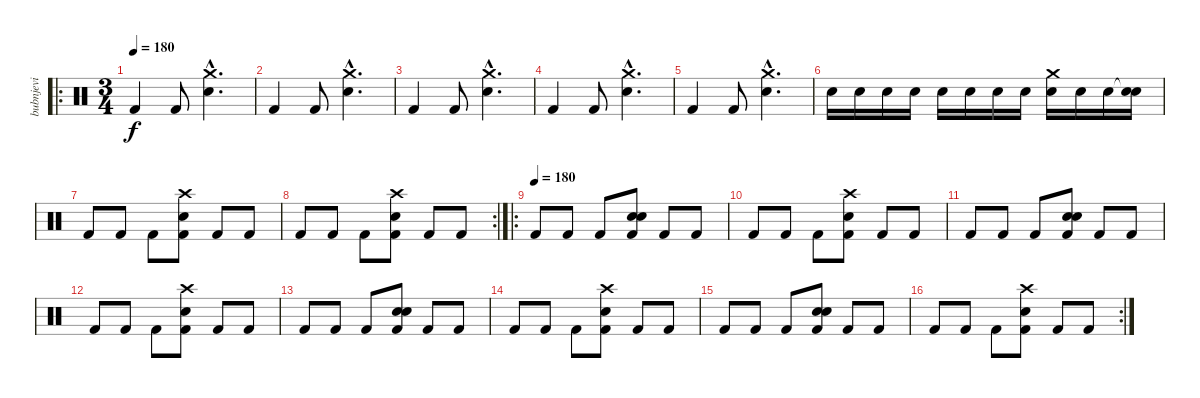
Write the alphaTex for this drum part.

\track ("bubnjevi" "bubnjevi") {instrument percussion}
\staff {score}
\articulation defaults
\ro
\ts (3 4)
\tempo 180
\clef neutral
\ks c "Kick (hit) 2".4{dy f} "Kick (hit) 2".8
("Crash medium (hit)"{hac} "Electric Snare (hit)"{hac}).4{d} |
"Kick (hit) 2".4 "Kick (hit) 2".8 ("Crash medium (hit)"{hac} "Electric Snare (hit)"{hac}).4{d} |
"Kick (hit) 2".4 "Kick (hit) 2".8 ("Crash medium (hit)"{hac} "Electric Snare (hit)"{hac}).4{d} |
"Kick (hit) 2".4 "Kick (hit) 2".8 ("Crash medium (hit)"{hac} "Electric Snare (hit)"{hac}).4{d} |
"Kick (hit) 2".4 "Kick (hit) 2".8 ("Crash medium (hit)"{hac} "Electric Snare (hit)"{hac}).4{d} |
"Snare (hit) 2".16 "Snare (hit) 2".16 "Snare (hit) 2".16 "Snare (hit) 2".16 "Snare (hit) 2".16 "Snare (hit) 2".16 "Snare (hit) 2".16 "Snare (hit) 2".16 ("Crash medium (hit)" "Electric Snare (hit)").16 "Electric Snare (hit)".16 "Electric Snare (hit)".16 ("Snare (hit)"{t} "Electric Snare (hit)").16 |
"Kick (hit) 2".8 "Kick (hit) 2".8 "Kick (hit) 2".8 ("Crash high (hit)" "Electric Snare (hit)" "Kick (hit) 2").8 "Kick (hit) 2".8 "Kick (hit) 2".8 |
\rc 2 "Kick (hit) 2".8 "Kick (hit) 2".8 "Kick (hit) 2".8
("Crash high (hit)" "Electric Snare (hit)" "Kick (hit) 2").8 "Kick (hit) 2".8 "Kick (hit) 2".8 |
\ro
\tempo (180)
"Kick (hit) 2".8 "Kick (hit) 2".8 "Kick (hit) 2".8 ("Electric Snare (hit)" "Electric Snare (hit)" "Kick (hit) 2").8 "Kick (hit) 2".8 "Kick (hit) 2".8 |
"Kick (hit) 2".8 "Kick (hit) 2".8 "Kick (hit) 2".8 ("Crash high (hit)" "Electric Snare (hit)" "Kick (hit) 2").8 "Kick (hit) 2".8 "Kick (hit) 2".8 |
"Kick (hit) 2".8 "Kick (hit) 2".8 "Kick (hit) 2".8 ("Electric Snare (hit)" "Electric Snare (hit)" "Kick (hit) 2").8 "Kick (hit) 2".8 "Kick (hit) 2".8 |
"Kick (hit) 2".8 "Kick (hit) 2".8 "Kick (hit) 2".8 ("Crash high (hit)" "Electric Snare (hit)" "Kick (hit) 2").8 "Kick (hit) 2".8 "Kick (hit) 2".8 |
"Kick (hit) 2".8 "Kick (hit) 2".8 "Kick (hit) 2".8 ("Electric Snare (hit)" "Electric Snare (hit)" "Kick (hit) 2").8 "Kick (hit) 2".8 "Kick (hit) 2".8 |
"Kick (hit) 2".8 "Kick (hit) 2".8 "Kick (hit) 2".8 ("Crash high (hit)" "Electric Snare (hit)" "Kick (hit) 2").8 "Kick (hit) 2".8 "Kick (hit) 2".8 |
"Kick (hit) 2".8 "Kick (hit) 2".8 "Kick (hit) 2".8 ("Electric Snare (hit)" "Electric Snare (hit)" "Kick (hit) 2").8 "Kick (hit) 2".8 "Kick (hit) 2".8 |
\rc 2 "Kick (hit) 2".8 "Kick (hit) 2".8 "Kick (hit) 2".8
("Crash high (hit)" "Electric Snare (hit)" "Kick (hit) 2").8 "Kick (hit) 2".8 "Kick (hit) 2".8
